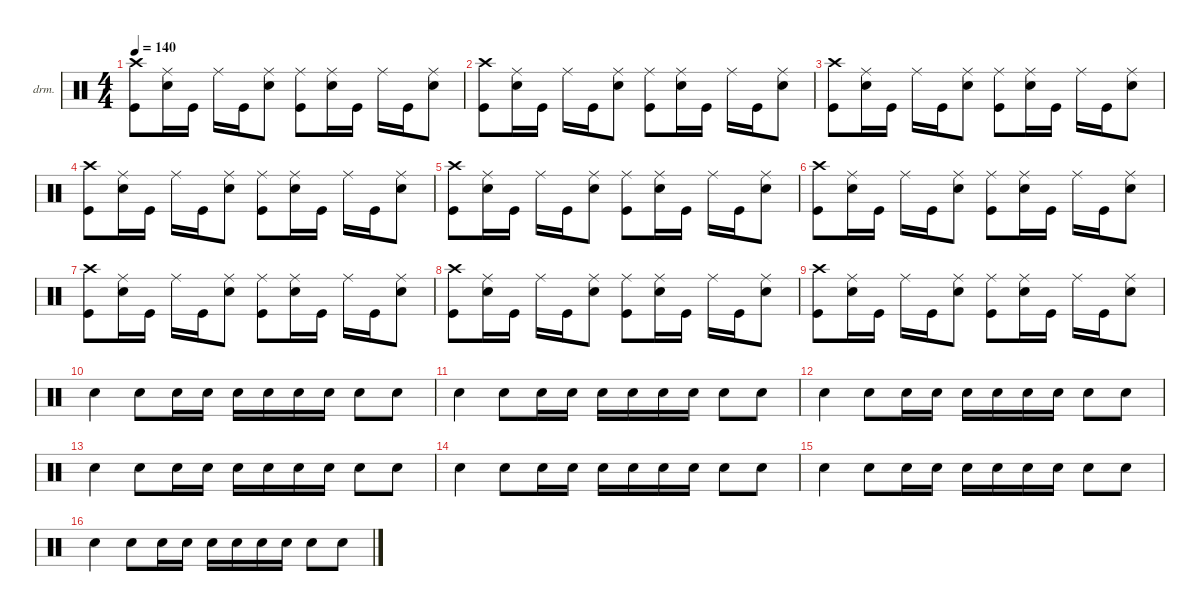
\defaultSystemsLayout 4
\hideDynamics
\bracketExtendMode nobrackets
\firstSystemTrackNameOrientation horizontal
\otherSystemsTrackNameOrientation horizontal
\track ("Drumkit" "drm.") {instrument percussion}
\staff {score}
\articulation defaults
\ts (4 4)
\tempo 140
\clef neutral
\ks c
("Crash high (hit)" "Kick (hit)").8{dy f} ("Ride (middle)" "Snare (hit) 2").16 "Kick (hit)".16 "Ride (middle)".16 "Kick (hit)".16 ("Ride (middle)" "Snare (hit) 2").8 ("Ride (middle)" "Kick (hit)").8 ("Ride (middle)" "Snare (hit) 2").16 "Kick (hit)".16 "Ride (middle)".16 "Kick (hit)".16 ("Ride (middle)" "Snare (hit) 2").8 |
("Crash high (hit)" "Kick (hit)").8 ("Ride (middle)" "Snare (hit) 2").16 "Kick (hit)".16 "Ride (middle)".16 "Kick (hit)".16 ("Ride (middle)" "Snare (hit) 2").8 ("Ride (middle)" "Kick (hit)").8 ("Ride (middle)" "Snare (hit) 2").16 "Kick (hit)".16 "Ride (middle)".16 "Kick (hit)".16 ("Ride (middle)" "Snare (hit) 2").8 |
("Crash high (hit)" "Kick (hit)").8 ("Ride (middle)" "Snare (hit) 2").16 "Kick (hit)".16 "Ride (middle)".16 "Kick (hit)".16 ("Ride (middle)" "Snare (hit) 2").8 ("Ride (middle)" "Kick (hit)").8 ("Ride (middle)" "Snare (hit) 2").16 "Kick (hit)".16 "Ride (middle)".16 "Kick (hit)".16 ("Ride (middle)" "Snare (hit) 2").8 |
("Crash high (hit)" "Kick (hit)").8 ("Ride (middle)" "Snare (hit) 2").16 "Kick (hit)".16 "Ride (middle)".16 "Kick (hit)".16 ("Ride (middle)" "Snare (hit) 2").8 ("Ride (middle)" "Kick (hit)").8 ("Ride (middle)" "Snare (hit) 2").16 "Kick (hit)".16 "Ride (middle)".16 "Kick (hit)".16 ("Ride (middle)" "Snare (hit) 2").8 |
("Crash high (hit)" "Kick (hit)").8 ("Ride (middle)" "Snare (hit) 2").16 "Kick (hit)".16 "Ride (middle)".16 "Kick (hit)".16 ("Ride (middle)" "Snare (hit) 2").8 ("Ride (middle)" "Kick (hit)").8 ("Ride (middle)" "Snare (hit) 2").16 "Kick (hit)".16 "Ride (middle)".16 "Kick (hit)".16 ("Ride (middle)" "Snare (hit) 2").8 |
("Crash high (hit)" "Kick (hit)").8 ("Ride (middle)" "Snare (hit) 2").16 "Kick (hit)".16 "Ride (middle)".16 "Kick (hit)".16 ("Ride (middle)" "Snare (hit) 2").8 ("Ride (middle)" "Kick (hit)").8 ("Ride (middle)" "Snare (hit) 2").16 "Kick (hit)".16 "Ride (middle)".16 "Kick (hit)".16 ("Ride (middle)" "Snare (hit) 2").8 |
("Crash high (hit)" "Kick (hit)").8 ("Ride (middle)" "Snare (hit) 2").16 "Kick (hit)".16 "Ride (middle)".16 "Kick (hit)".16 ("Ride (middle)" "Snare (hit) 2").8 ("Ride (middle)" "Kick (hit)").8 ("Ride (middle)" "Snare (hit) 2").16 "Kick (hit)".16 "Ride (middle)".16 "Kick (hit)".16 ("Ride (middle)" "Snare (hit) 2").8 |
("Crash high (hit)" "Kick (hit)").8 ("Ride (middle)" "Snare (hit) 2").16 "Kick (hit)".16 "Ride (middle)".16 "Kick (hit)".16 ("Ride (middle)" "Snare (hit) 2").8 ("Ride (middle)" "Kick (hit)").8 ("Ride (middle)" "Snare (hit) 2").16 "Kick (hit)".16 "Ride (middle)".16 "Kick (hit)".16 ("Ride (middle)" "Snare (hit) 2").8 |
("Crash high (hit)" "Kick (hit)").8 ("Ride (middle)" "Snare (hit) 2").16 "Kick (hit)".16 "Ride (middle)".16 "Kick (hit)".16 ("Ride (middle)" "Snare (hit) 2").8 ("Ride (middle)" "Kick (hit)").8 ("Ride (middle)" "Snare (hit) 2").16 "Kick (hit)".16 "Ride (middle)".16 "Kick (hit)".16 ("Ride (middle)" "Snare (hit) 2").8 |
"Snare (hit) 2".4{dy mf} "Snare (hit) 2".8 "Snare (hit) 2".16 "Snare (hit) 2".16 "Snare (hit) 2".16 "Snare (hit) 2".16 "Snare (hit) 2".16 "Snare (hit) 2".16 "Snare (hit) 2".8 "Snare (hit) 2".8 |
"Snare (hit) 2".4 "Snare (hit) 2".8 "Snare (hit) 2".16 "Snare (hit) 2".16 "Snare (hit) 2".16 "Snare (hit) 2".16 "Snare (hit) 2".16 "Snare (hit) 2".16 "Snare (hit) 2".8 "Snare (hit) 2".8 |
"Snare (hit) 2".4 "Snare (hit) 2".8 "Snare (hit) 2".16 "Snare (hit) 2".16 "Snare (hit) 2".16 "Snare (hit) 2".16 "Snare (hit) 2".16 "Snare (hit) 2".16 "Snare (hit) 2".8 "Snare (hit) 2".8 |
"Snare (hit) 2".4 "Snare (hit) 2".8 "Snare (hit) 2".16 "Snare (hit) 2".16 "Snare (hit) 2".16 "Snare (hit) 2".16 "Snare (hit) 2".16 "Snare (hit) 2".16 "Snare (hit) 2".8 "Snare (hit) 2".8 |
"Snare (hit) 2".4 "Snare (hit) 2".8 "Snare (hit) 2".16 "Snare (hit) 2".16 "Snare (hit) 2".16 "Snare (hit) 2".16 "Snare (hit) 2".16 "Snare (hit) 2".16 "Snare (hit) 2".8 "Snare (hit) 2".8 |
"Snare (hit) 2".4 "Snare (hit) 2".8 "Snare (hit) 2".16 "Snare (hit) 2".16 "Snare (hit) 2".16 "Snare (hit) 2".16 "Snare (hit) 2".16 "Snare (hit) 2".16 "Snare (hit) 2".8 "Snare (hit) 2".8 |
"Snare (hit) 2".4 "Snare (hit) 2".8 "Snare (hit) 2".16 "Snare (hit) 2".16 "Snare (hit) 2".16 "Snare (hit) 2".16 "Snare (hit) 2".16 "Snare (hit) 2".16 "Snare (hit) 2".8 "Snare (hit) 2".8
